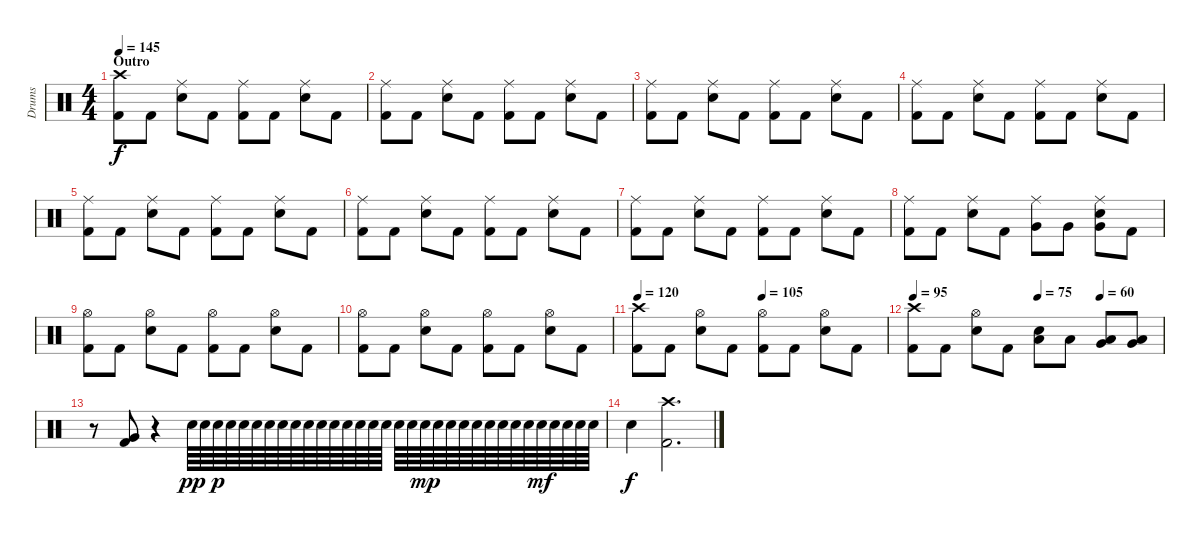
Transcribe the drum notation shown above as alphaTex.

\track ("Drums" "Drums") {instrument percussion}
\staff {score}
\articulation defaults
\ts (4 4)
\section ("" "Outro")
\tempo 145
\clef neutral
\ks c
("Crash high (hit)" "Kick (hit) 2").8{dy f} "Kick (hit) 2".8 ("Ride (middle)" "Snare (hit) 2").8 "Kick (hit) 2".8 ("Ride (middle)" "Kick (hit) 2").8 "Kick (hit) 2".8 ("Ride (middle)" "Snare (hit) 2").8 "Kick (hit) 2".8 |
("Ride (middle)" "Kick (hit) 2").8 "Kick (hit) 2".8 ("Ride (middle)" "Snare (hit) 2").8 "Kick (hit) 2".8 ("Ride (middle)" "Kick (hit) 2").8 "Kick (hit) 2".8 ("Ride (middle)" "Snare (hit) 2").8 "Kick (hit) 2".8 |
("Ride (middle)" "Kick (hit) 2").8 "Kick (hit) 2".8 ("Ride (middle)" "Snare (hit) 2").8 "Kick (hit) 2".8 ("Ride (middle)" "Kick (hit) 2").8 "Kick (hit) 2".8 ("Ride (middle)" "Snare (hit) 2").8 "Kick (hit) 2".8 |
("Ride (middle)" "Kick (hit) 2").8 "Kick (hit) 2".8 ("Ride (middle)" "Snare (hit) 2").8 "Kick (hit) 2".8 ("Ride (middle)" "Kick (hit) 2").8 "Kick (hit) 2".8 ("Ride (middle)" "Snare (hit) 2").8 "Kick (hit) 2".8 |
("Ride (middle)" "Kick (hit) 2").8 "Kick (hit) 2".8 ("Ride (middle)" "Snare (hit) 2").8 "Kick (hit) 2".8 ("Ride (middle)" "Kick (hit) 2").8 "Kick (hit) 2".8 ("Ride (middle)" "Snare (hit) 2").8 "Kick (hit) 2".8 |
("Ride (middle)" "Kick (hit) 2").8 "Kick (hit) 2".8 ("Ride (middle)" "Snare (hit) 2").8 "Kick (hit) 2".8 ("Ride (middle)" "Kick (hit) 2").8 "Kick (hit) 2".8 ("Ride (middle)" "Snare (hit) 2").8 "Kick (hit) 2".8 |
("Ride (middle)" "Kick (hit) 2").8 "Kick (hit) 2".8 ("Ride (middle)" "Snare (hit) 2").8 "Kick (hit) 2".8 ("Ride (middle)" "Kick (hit) 2").8 "Kick (hit) 2".8 ("Ride (middle)" "Snare (hit) 2").8 "Kick (hit) 2".8 |
("Ride (middle)" "Kick (hit) 2").8 "Kick (hit) 2".8 ("Ride (middle)" "Snare (hit) 2").8 "Kick (hit) 2".8 ("Ride (middle)" "Very Low Tom (hit)").8 "Very Low Tom (hit)".8 ("Ride (middle)" "Snare (hit) 2" "Very Low Tom (hit)").8 "Kick (hit) 2".8 |
("Hi-Hat (open)" "Kick (hit) 2").8 "Kick (hit) 2".8 ("Hi-Hat (open)" "Snare (hit) 2").8 "Kick (hit) 2".8 ("Hi-Hat (open)" "Kick (hit) 2").8 "Kick (hit) 2".8 ("Hi-Hat (open)" "Snare (hit) 2").8 "Kick (hit) 2".8 |
("Hi-Hat (open)" "Kick (hit) 2").8 "Kick (hit) 2".8 ("Hi-Hat (open)" "Snare (hit) 2").8 "Kick (hit) 2".8 ("Hi-Hat (open)" "Kick (hit) 2").8 "Kick (hit) 2".8 ("Hi-Hat (open)" "Snare (hit) 2").8 "Kick (hit) 2".8 |
\tempo 120
\tempo (105 0.5)
("Crash high (hit)" "Kick (hit) 2").8 "Kick (hit) 2".8 ("Hi-Hat (open)" "Snare (hit) 2").8 "Kick (hit) 2".8 ("Hi-Hat (open)" "Kick (hit) 2").8 "Kick (hit) 2".8 ("Hi-Hat (open)" "Snare (hit) 2").8 "Kick (hit) 2".8 |
\tempo 95
\tempo (75 0.5)
\tempo (60 0.75)
("Crash high (hit)" "Kick (hit) 2").8 "Kick (hit) 2".8 ("Hi-Hat (open)" "Snare (hit) 2").8 "Kick (hit) 2".8 ("Snare (hit) 2" "Low Tom (hit)").8 "Low Tom (hit)".8 ("Low Tom (hit)" "Very Low Tom (hit)").8 ("Low Tom (hit)" "Very Low Tom (hit)").8 |
r.8 ("Very Low Tom (hit)" "Kick (hit) 2").8 r.4 "Snare (hit) 2".64{dy pp} "Snare (hit) 2".64 "Snare (hit) 2".64{dy p} "Snare (hit) 2".64 "Snare (hit) 2".64 "Snare (hit) 2".64 "Snare (hit) 2".64 "Snare (hit) 2".64 "Snare (hit) 2".64 "Snare (hit) 2".64 "Snare (hit) 2".64 "Snare (hit) 2".64 "Snare (hit) 2".64 "Snare (hit) 2".64 "Snare (hit) 2".64 "Snare (hit) 2".64 "Snare (hit) 2".64 "Snare (hit) 2".64 "Snare (hit) 2".64{dy mp} "Snare (hit) 2".64 "Snare (hit) 2".64 "Snare (hit) 2".64 "Snare (hit) 2".64 "Snare (hit) 2".64 "Snare (hit) 2".64 "Snare (hit) 2".64 "Snare (hit) 2".64 "Snare (hit) 2".64{dy mf} "Snare (hit) 2".64 "Snare (hit) 2".64 "Snare (hit) 2".64 "Snare (hit) 2".64 |
"Snare (hit) 2".4{dy f} ("Crash high (hit)" "Kick (hit) 2").2{d}
